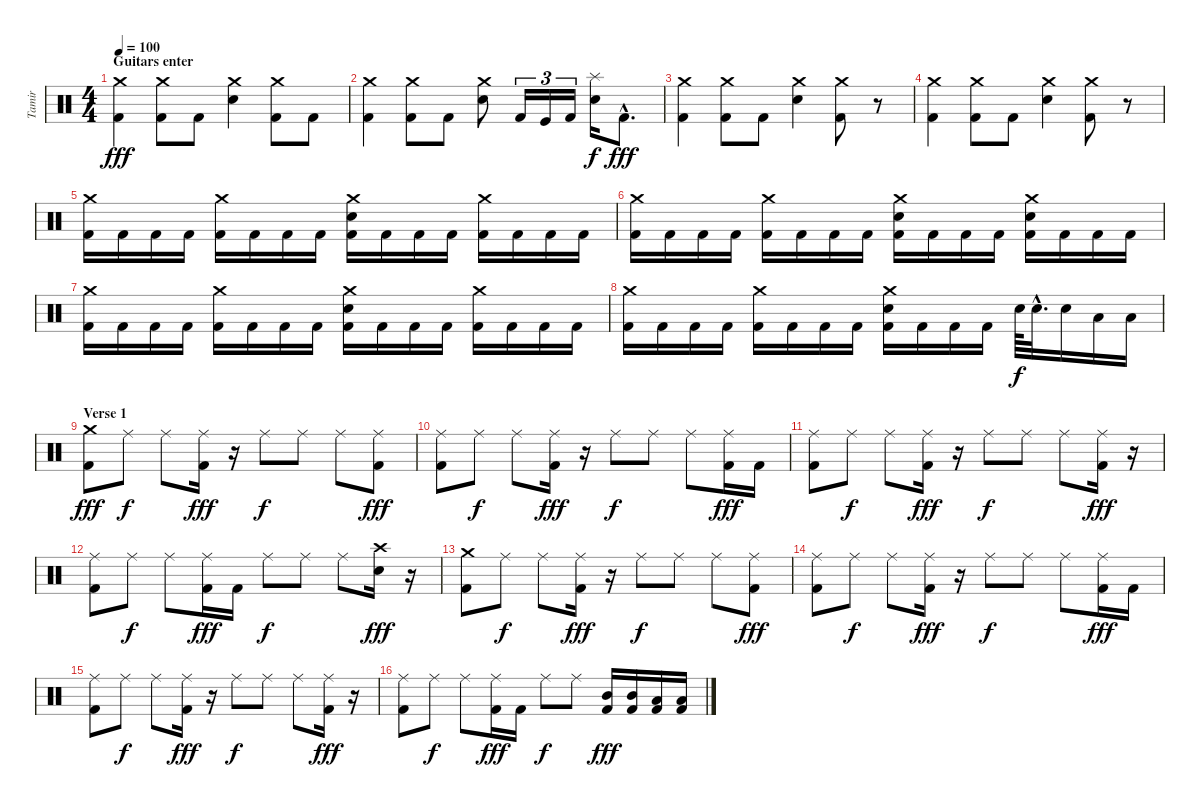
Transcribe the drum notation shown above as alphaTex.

\track ("Tamir" "Tamir") {instrument percussion}
\staff {score}
\articulation defaults
\ts (4 4)
\section ("" "Guitars enter")
\tempo 100
\clef neutral
\ks c
("Crash medium (hit)" "Kick (hit) 2").4{dy fff} ("Crash medium (hit)" "Kick (hit) 2").8 "Kick (hit) 2".8 ("Crash medium (hit)" "Electric Snare (hit)").4 ("Crash medium (hit)" "Kick (hit) 2").8 "Kick (hit) 2".8 |
("Crash medium (hit)" "Kick (hit) 2").4 ("Crash medium (hit)" "Kick (hit) 2").8 "Kick (hit) 2".8 ("Crash medium (hit)" "Electric Snare (hit)").8 "Kick (hit) 2".16{tu (3 2)} "Kick (hit)".16{tu (3 2)} "Kick (hit) 2".16{tu (3 2)} ("Splash (hit)" "Electric Snare (hit)").16{dy f} "Kick (hit) 2"{hac}.8{d dy fff} |
("Crash medium (hit)" "Kick (hit) 2").4 ("Crash medium (hit)" "Kick (hit) 2").8 "Kick (hit) 2".8 ("Crash medium (hit)" "Electric Snare (hit)").4 ("Crash medium (hit)" "Kick (hit) 2").8 r.8 |
("Crash medium (hit)" "Kick (hit) 2").4 ("Crash medium (hit)" "Kick (hit) 2").8 "Kick (hit) 2".8 ("Crash medium (hit)" "Electric Snare (hit)").4 ("Crash medium (hit)" "Kick (hit) 2").8 r.8 |
("Crash medium (hit)" "Kick (hit) 2").16 "Kick (hit) 2".16 "Kick (hit) 2".16 "Kick (hit) 2".16 ("Crash medium (hit)" "Kick (hit) 2").16 "Kick (hit) 2".16 "Kick (hit) 2".16 "Kick (hit) 2".16 ("Crash medium (hit)" "Electric Snare (hit)" "Kick (hit) 2").16 "Kick (hit) 2".16 "Kick (hit) 2".16 "Kick (hit) 2".16 ("Crash medium (hit)" "Kick (hit) 2").16 "Kick (hit) 2".16 "Kick (hit) 2".16 "Kick (hit) 2".16 |
("Crash medium (hit)" "Kick (hit) 2").16 "Kick (hit) 2".16 "Kick (hit) 2".16 "Kick (hit) 2".16 ("Crash medium (hit)" "Kick (hit) 2").16 "Kick (hit) 2".16 "Kick (hit) 2".16 "Kick (hit) 2".16 ("Crash medium (hit)" "Electric Snare (hit)" "Kick (hit) 2").16 "Kick (hit) 2".16 "Kick (hit) 2".16 "Kick (hit) 2".16 ("Crash medium (hit)" "Electric Snare (hit)" "Kick (hit) 2").16 "Kick (hit) 2".16 "Kick (hit) 2".16 "Kick (hit) 2".16 |
("Crash medium (hit)" "Kick (hit) 2").16 "Kick (hit) 2".16 "Kick (hit) 2".16 "Kick (hit) 2".16 ("Crash medium (hit)" "Kick (hit) 2").16 "Kick (hit) 2".16 "Kick (hit) 2".16 "Kick (hit) 2".16 ("Crash medium (hit)" "Electric Snare (hit)" "Kick (hit) 2").16 "Kick (hit) 2".16 "Kick (hit) 2".16 "Kick (hit) 2".16 ("Crash medium (hit)" "Kick (hit) 2").16 "Kick (hit) 2".16 "Kick (hit) 2".16 "Kick (hit) 2".16 |
("Crash medium (hit)" "Kick (hit) 2").16 "Kick (hit) 2".16 "Kick (hit) 2".16 "Kick (hit) 2".16 ("Crash medium (hit)" "Kick (hit) 2").16 "Kick (hit) 2".16 "Kick (hit) 2".16 "Kick (hit) 2".16 ("Crash medium (hit)" "Electric Snare (hit)" "Kick (hit) 2").16 "Kick (hit) 2".16 "Kick (hit) 2".16 "Kick (hit) 2".16 "Electric Snare (hit)".64{dy f} "Electric Snare (hit)"{hac}.32{d} "Electric Snare (hit)".16 "Low Tom (hit)".16 "Low Tom (hit)".16 |
\section ("" "Verse 1")
("Crash medium (hit)" "Kick (hit) 2").8{dy fff} "Ride (middle)".8{dy f} "Ride (middle)".8 ("Ride (middle)" "Kick (hit) 2").16{dy fff} r.16 "Ride (middle)".8{dy f} "Ride (middle)".8 "Ride (middle)".8 ("Ride (middle)" "Kick (hit) 2").8{dy fff} |
("Ride (middle)" "Kick (hit) 2").8 "Ride (middle)".8{dy f} "Ride (middle)".8 ("Ride (middle)" "Kick (hit) 2").16{dy fff} r.16 "Ride (middle)".8{dy f} "Ride (middle)".8 "Ride (middle)".8 ("Ride (middle)" "Kick (hit) 2").16{dy fff} "Kick (hit) 2".16 |
("Ride (middle)" "Kick (hit) 2").8 "Ride (middle)".8{dy f} "Ride (middle)".8 ("Ride (middle)" "Kick (hit) 2").16{dy fff} r.16 "Ride (middle)".8{dy f} "Ride (middle)".8 "Ride (middle)".8 ("Ride (middle)" "Kick (hit) 2").16{dy fff} r.16 |
("Ride (middle)" "Kick (hit) 2").8 "Ride (middle)".8{dy f} "Ride (middle)".8 ("Ride (middle)" "Kick (hit) 2").16{dy fff} "Kick (hit) 2".16 "Ride (middle)".8{dy f} "Ride (middle)".8 "Ride (middle)".8 ("Crash high (hit)" "Electric Snare (hit)").16{dy fff} r.16 |
("Crash medium (hit)" "Kick (hit) 2").8 "Ride (middle)".8{dy f} "Ride (middle)".8 ("Ride (middle)" "Kick (hit) 2").16{dy fff} r.16 "Ride (middle)".8{dy f} "Ride (middle)".8 "Ride (middle)".8 ("Ride (middle)" "Kick (hit) 2").8{dy fff} |
("Ride (middle)" "Kick (hit) 2").8 "Ride (middle)".8{dy f} "Ride (middle)".8 ("Ride (middle)" "Kick (hit) 2").16{dy fff} r.16 "Ride (middle)".8{dy f} "Ride (middle)".8 "Ride (middle)".8 ("Ride (middle)" "Kick (hit) 2").16{dy fff} "Kick (hit) 2".16 |
("Ride (middle)" "Kick (hit) 2").8 "Ride (middle)".8{dy f} "Ride (middle)".8 ("Ride (middle)" "Kick (hit) 2").16{dy fff} r.16 "Ride (middle)".8{dy f} "Ride (middle)".8 "Ride (middle)".8 ("Ride (middle)" "Kick (hit) 2").16{dy fff} r.16 |
("Ride (middle)" "Kick (hit) 2").8 "Ride (middle)".8{dy f} "Ride (middle)".8 ("Ride (middle)" "Kick (hit) 2").16{dy fff} "Kick (hit) 2".16 "Ride (middle)".8{dy f} "Ride (middle)".8 ("Mid Tom (hit)" "Kick (hit) 2").16{dy fff} ("Mid Tom (hit)" "Kick (hit) 2").16 ("Low Tom (hit)" "Kick (hit) 2").16 ("Low Tom (hit)" "Kick (hit) 2").16
